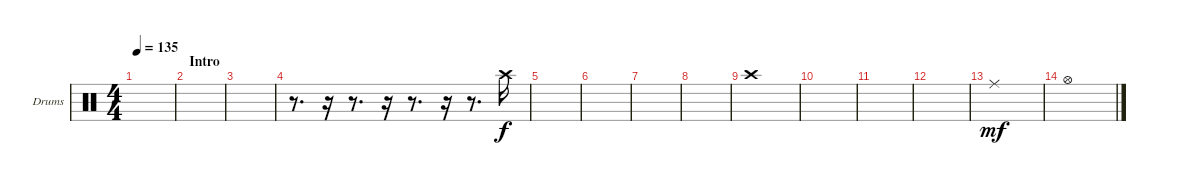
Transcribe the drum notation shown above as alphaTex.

\bracketExtendMode groupsimilarinstruments
\firstSystemTrackNameOrientation horizontal
\otherSystemsTrackNameOrientation horizontal
\track ("OH" "Drums") {instrument percussion}
\staff {score}
\articulation defaults
\ts (4 4)
\tempo 135
\clef neutral
\ks c
|
\section ("" "Intro")
|
|
r.8{d} r.16 r.8{d} r.16 r.8{d} r.16 r.8{d} "Crash high (hit)".16 |
|
|
|
|
"Crash high (hit)".1 |
|
|
\scale
0.333333 |
\scale
0.333333 "Ride (middle)".1{dy mf} |
\scale
0.333333 "Hi-Hat (open)".1
